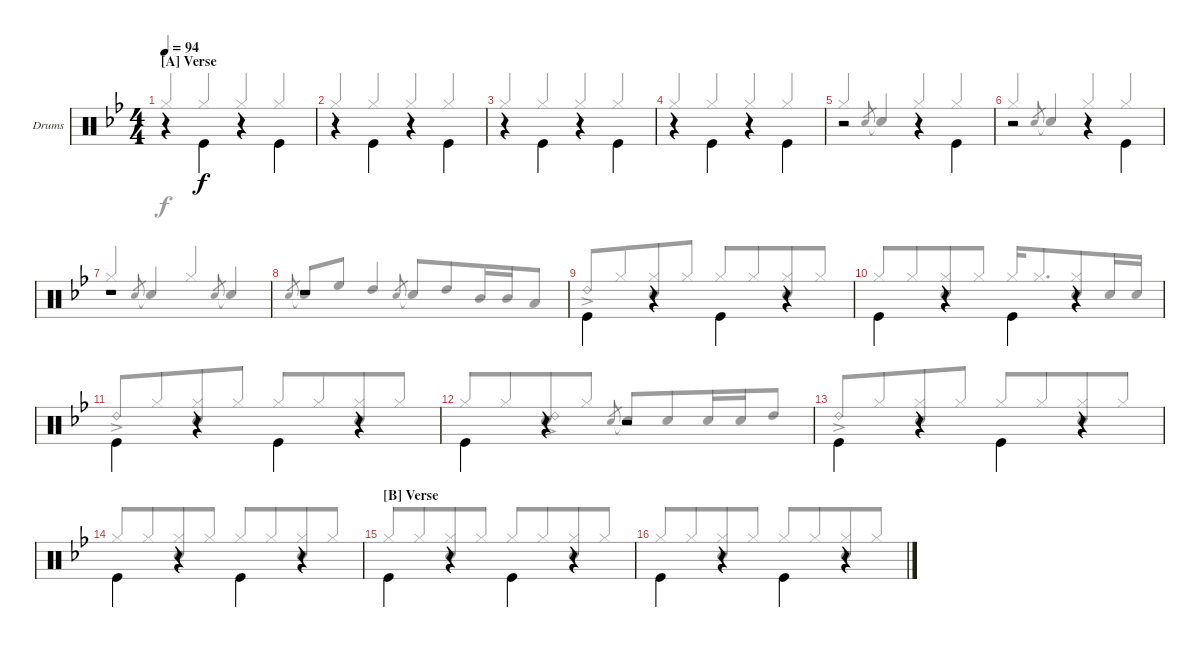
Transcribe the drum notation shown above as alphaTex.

\bracketExtendMode groupsimilarinstruments
\firstSystemTrackNameOrientation horizontal
\otherSystemsTrackNameOrientation horizontal
\track ("Drum" "Drums") {instrument percussion}
\staff {score}
\articulation defaults
\voice
\ts (4 4)
\beaming (8 4 4)
\section ("A" "Verse")
\tempo 94
\clef neutral
\scale
1.07945
\ks bb
r.4{dy f} "Kick (hit)".4{beam invert} r.4{beam invert} "Kick (hit)".4{beam invert} |
\scale
0.920555 r.4 "Kick (hit)".4{beam invert} r.4{beam invert} "Kick (hit)".4{beam invert} |
\scale
1.04918 r.4 "Kick (hit)".4{beam invert} r.4{beam invert} "Kick (hit)".4{beam invert} |
\scale
0.95082 r.4 "Kick (hit)".4{beam invert} r.4{beam invert} "Kick (hit)".4{beam invert} |
\scale
1.04918 r.2 r.4 "Kick (hit)".4{beam invert} |
\scale
0.95082 r.2 r.4 "Kick (hit)".4{beam invert} |
\scale
1.04918 r.1 |
\scale
0.95082 r.1 |
\scale
1.04918 "Kick (hit)".4{beam invert} r.4{beam invert} "Kick (hit)".4{beam invert} r.4 |
\scale
0.95082 "Kick (hit)".4{beam invert} r.4{beam invert} "Kick (hit)".4{beam invert} r.4 |
\scale
1.07945 "Kick (hit)".4{beam invert} r.4{beam invert} "Kick (hit)".4{beam invert} r.4 |
\scale
0.920555 "Kick (hit)".4{beam invert} r.4{beam invert} r.2 |
\scale
1.04918 "Kick (hit)".4{beam invert} r.4{beam invert} "Kick (hit)".4{beam invert} r.4 |
\scale
0.95082 "Kick (hit)".4{beam invert} r.4{beam invert} "Kick (hit)".4{beam invert} r.4 |
\section ("B" "Verse")
\scale
1.04918 "Kick (hit)".4{beam invert} r.4{beam invert} "Kick (hit)".4{beam invert} r.4 |
\scale
0.95082 "Kick (hit)".4{beam invert} r.4{beam invert} "Kick (hit)".4{beam invert} r.4
\voice
\clef neutral
\ottava regular
\simile none
\scale
1.07945
\ks bb "Hi-Hat (closed)".4{dy f beam invert} "Hi-Hat (closed)".4{beam invert} "Hi-Hat (closed)".4{beam invert} "Hi-Hat (closed)".4{beam invert}
|
\scale
0.920555 "Hi-Hat (closed)".4{beam invert} "Hi-Hat (closed)".4{beam invert} "Hi-Hat (closed)".4{beam invert} "Hi-Hat (closed)".4{beam invert} |
\scale
1.04918 "Hi-Hat (closed)".4{beam invert} "Hi-Hat (closed)".4{beam invert} "Hi-Hat (closed)".4{beam invert} "Hi-Hat (closed)".4{beam invert} |
\scale
0.95082 "Hi-Hat (closed)".4{beam invert} "Hi-Hat (closed)".4{beam invert} "Hi-Hat (closed)".4{beam invert} "Hi-Hat (closed)".4{beam invert} |
\scale
1.04918 "Hi-Hat (closed)".4{beam invert} "Snare (hit) 2".8{gr beam invert} "Snare (hit) 2"{t}.4{beam invert} "Hi-Hat (closed)".4{beam invert} "Hi-Hat (closed)".4{beam invert} |
\scale
0.95082 "Hi-Hat (closed)".4{beam invert} "Snare (hit) 2".8{gr beam invert} "Snare (hit) 2"{t}.4{beam invert} "Hi-Hat (closed)".4{beam invert} "Hi-Hat (closed)".4{beam invert} |
\scale
1.04918 "Hi-Hat (closed)".4{beam invert} "Snare (hit) 2".8{gr beam invert} "Snare (hit) 2"{t}.4{beam invert} "Hi-Hat (closed)".4{beam invert} "Snare (hit) 2".8{gr beam invert} "Snare (hit) 2"{t}.4{beam invert} |
\scale
0.95082 "Snare (hit) 2".8{gr beam invert} "Snare (hit) 2"{t}.8{beam invert} "High Floor Tom (hit)".8 "High Tom (hit)".4{beam invert} "Snare (hit) 2".8{gr beam invert} "Snare (hit) 2"{t}.8{beam invert} "High Tom (hit)".8 "Mid Tom (hit)".16 "Mid Tom (hit)".16 "Low Tom (hit)".8 |
\scale
1.04918 "Ride (bell) 2"{ac}.8{beam invert} "Hi-Hat (closed)".8 ("Hi-Hat (closed)" "Snare (hit) 2").8 "Hi-Hat (closed)".8 "Hi-Hat (closed)".8{beam invert} "Hi-Hat (closed)".8 ("Hi-Hat (closed)" "Snare (hit) 2").8 "Hi-Hat (closed)".8 |
\scale
0.95082 "Hi-Hat (closed)".8{beam invert} "Hi-Hat (closed)".8 ("Hi-Hat (closed)" "Snare (hit) 2").8 "Hi-Hat (closed)".8 "Hi-Hat (closed)".16{beam invert} "Hi-Hat (closed)".8{d} ("Hi-Hat (closed)" "Snare (hit) 2").8 "Snare (hit) 2".16 "Snare (hit) 2".16 |
\scale
1.07945 "Ride (bell) 2"{ac}.8 "Hi-Hat (closed)".8 ("Hi-Hat (closed)" "Snare (hit) 2").8 "Hi-Hat (closed)".8{beam invert} "Hi-Hat (closed)".8 "Hi-Hat (closed)".8 ("Hi-Hat (closed)" "Snare (hit) 2").8 "Hi-Hat (closed)".8{beam invert} |
\scale
0.920555 "Hi-Hat (closed)".8{beam invert} "Hi-Hat (closed)".8 ("Snare (hit) 2" "Ride (bell) 2"{ac}).8 "Hi-Hat (closed)".8 "Snare (hit) 2".8{gr beam invert} "Snare (hit) 2"{t}.8 "Snare (hit) 2".8 "Snare (hit) 2".16 "Snare (hit) 2".16 "High Tom (hit)".8{beam invert} |
\scale
1.04918 "Ride (bell) 2"{ac}.8{beam invert} "Hi-Hat (closed)".8 ("Hi-Hat (closed)" "Snare (hit) 2").8 "Hi-Hat (closed)".8 "Hi-Hat (closed)".8{beam invert} "Hi-Hat (closed)".8 ("Hi-Hat (closed)" "Snare (hit) 2").8 "Hi-Hat (closed)".8 |
\scale
0.95082 "Hi-Hat (closed)".8 "Hi-Hat (closed)".8{beam invert} ("Hi-Hat (closed)" "Snare (hit) 2").8 "Hi-Hat (closed)".8 "Hi-Hat (closed)".8 "Hi-Hat (closed)".8 ("Hi-Hat (closed)" "Snare (hit) 2").8{beam invert} "Hi-Hat (closed)".8 |
\scale
1.04918 "Hi-Hat (closed)".8 "Hi-Hat (closed)".8 ("Hi-Hat (closed)" "Snare (hit) 2").8{beam invert} "Hi-Hat (closed)".8 "Hi-Hat (closed)".8 "Hi-Hat (closed)".8 ("Hi-Hat (closed)" "Snare (hit) 2").8{beam invert} "Hi-Hat (closed)".8 |
\scale
0.95082 "Hi-Hat (closed)".8 "Hi-Hat (closed)".8 ("Hi-Hat (closed)" "Snare (hit) 2").8{beam invert} "Hi-Hat (closed)".8 "Hi-Hat (closed)".8 "Hi-Hat (closed)".8 ("Hi-Hat (closed)" "Snare (hit) 2").8{beam invert} "Hi-Hat (closed)".8
